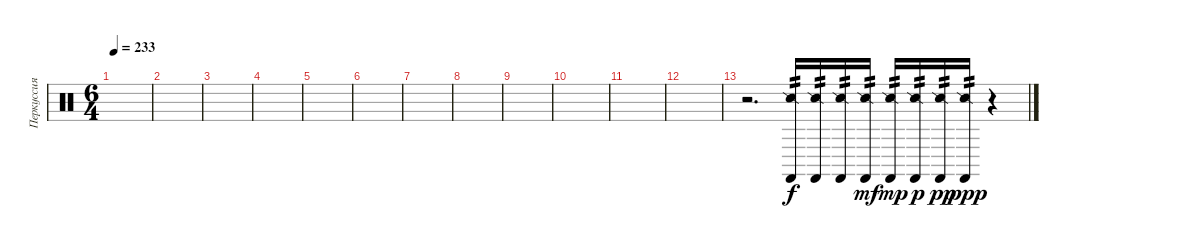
\track ("Перкуссия" "Перкуссия") {instrument percussion}
\staff {score}
\articulation defaults
\ts (6 4)
\tempo 233
\clef neutral
\ks c
|
|
|
|
|
|
|
|
|
|
|
|
r.2{d} ("Snare (side stick) 2" "Castanets (hit)").16{tp 2} ("Snare (side stick) 2" "Castanets (hit)").16{tp 2} ("Snare (side stick) 2" "Castanets (hit)").16{tp 2} ("Snare (side stick) 2" "Castanets (hit)").16{tp 2 dy mf} ("Snare (side stick) 2" "Castanets (hit)").16{tp 2 dy mp} ("Snare (side stick) 2" "Castanets (hit)").16{tp 2 dy p} ("Snare (side stick) 2" "Castanets (hit)").16{tp 2 dy pp} ("Snare (side stick) 2" "Castanets (hit)").16{tp 2 dy ppp} r.4
